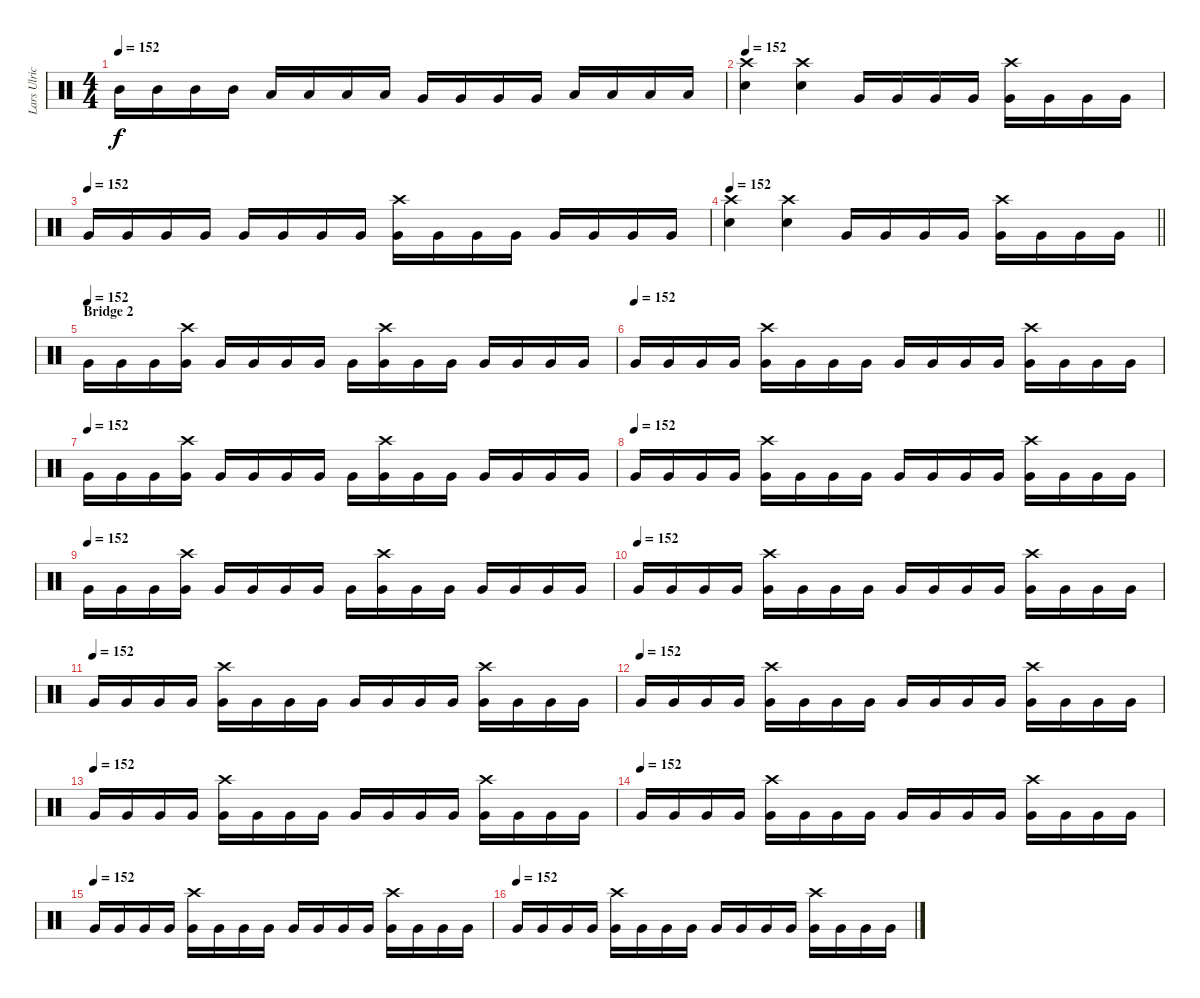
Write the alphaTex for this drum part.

\track ("Lars Ulrich" "Lars Ulric") {instrument percussion}
\staff {score}
\articulation defaults
\ts (4 4)
\tempo 152
\clef neutral
\ks c "Mid Tom (hit)".16{dy f} "Mid Tom (hit)".16 "Mid Tom (hit)".16 "Mid Tom (hit)".16 "Low Tom (hit)".16 "Low Tom (hit)".16 "Low Tom (hit)".16 "Low Tom (hit)".16 "Very Low Tom (hit)".16 "Very Low Tom (hit)".16 "Very Low Tom (hit)".16 "Very Low Tom (hit)".16 "Low Floor Tom (hit)".16 "Low Floor Tom (hit)".16 "Low Floor Tom (hit)".16 "Low Floor Tom (hit)".16
|
\tempo 152
("Crash high (hit)" "Snare (hit) 2").4{volume 10} ("Crash high (hit)" "Snare (hit) 2").4 "Very Low Tom (hit)".16 "Very Low Tom (hit)".16 "Very Low Tom (hit)".16 "Very Low Tom (hit)".16 ("Crash high (hit)" "Very Low Tom (hit)").16 "Very Low Tom (hit)".16 "Very Low Tom (hit)".16 "Very Low Tom (hit)".16 |
\tempo (152)
"Very Low Tom (hit)".16 "Very Low Tom (hit)".16 "Very Low Tom (hit)".16 "Very Low Tom (hit)".16 "Very Low Tom (hit)".16 "Very Low Tom (hit)".16 "Very Low Tom (hit)".16 "Very Low Tom (hit)".16 ("Crash high (hit)" "Very Low Tom (hit)").16 "Very Low Tom (hit)".16 "Very Low Tom (hit)".16 "Very Low Tom (hit)".16 "Very Low Tom (hit)".16 "Very Low Tom (hit)".16 "Very Low Tom (hit)".16 "Very Low Tom (hit)".16 |
\tempo 152
\barLineRight lightlight
("Crash high (hit)" "Snare (hit) 2").4 ("Crash high (hit)" "Snare (hit) 2").4 "Very Low Tom (hit)".16 "Very Low Tom (hit)".16 "Very Low Tom (hit)".16 "Very Low Tom (hit)".16 ("Crash high (hit)" "Very Low Tom (hit)").16 "Very Low Tom (hit)".16 "Very Low Tom (hit)".16 "Very Low Tom (hit)".16 |
\section ("" "Bridge 2")
\tempo (152)
"Very Low Tom (hit)".16 "Very Low Tom (hit)".16 "Very Low Tom (hit)".16 ("Crash high (hit)" "Very Low Tom (hit)").16 "Very Low Tom (hit)".16 "Very Low Tom (hit)".16 "Very Low Tom (hit)".16 "Very Low Tom (hit)".16 "Very Low Tom (hit)".16 ("Crash high (hit)" "Very Low Tom (hit)").16 "Very Low Tom (hit)".16 "Very Low Tom (hit)".16 "Very Low Tom (hit)".16 "Very Low Tom (hit)".16 "Very Low Tom (hit)".16 "Very Low Tom (hit)".16 |
\tempo (152)
"Very Low Tom (hit)".16 "Very Low Tom (hit)".16 "Very Low Tom (hit)".16 "Very Low Tom (hit)".16 ("Crash high (hit)" "Very Low Tom (hit)").16 "Very Low Tom (hit)".16 "Very Low Tom (hit)".16 "Very Low Tom (hit)".16 "Very Low Tom (hit)".16 "Very Low Tom (hit)".16 "Very Low Tom (hit)".16 "Very Low Tom (hit)".16 ("Crash high (hit)" "Very Low Tom (hit)").16 "Very Low Tom (hit)".16 "Very Low Tom (hit)".16 "Very Low Tom (hit)".16 |
\tempo (152)
"Very Low Tom (hit)".16 "Very Low Tom (hit)".16 "Very Low Tom (hit)".16 ("Crash high (hit)" "Very Low Tom (hit)").16 "Very Low Tom (hit)".16 "Very Low Tom (hit)".16 "Very Low Tom (hit)".16 "Very Low Tom (hit)".16 "Very Low Tom (hit)".16 ("Crash high (hit)" "Very Low Tom (hit)").16 "Very Low Tom (hit)".16 "Very Low Tom (hit)".16 "Very Low Tom (hit)".16 "Very Low Tom (hit)".16 "Very Low Tom (hit)".16 "Very Low Tom (hit)".16 |
\tempo (152)
"Very Low Tom (hit)".16 "Very Low Tom (hit)".16 "Very Low Tom (hit)".16 "Very Low Tom (hit)".16 ("Crash high (hit)" "Very Low Tom (hit)").16 "Very Low Tom (hit)".16 "Very Low Tom (hit)".16 "Very Low Tom (hit)".16 "Very Low Tom (hit)".16 "Very Low Tom (hit)".16 "Very Low Tom (hit)".16 "Very Low Tom (hit)".16 ("Crash high (hit)" "Very Low Tom (hit)").16 "Very Low Tom (hit)".16 "Very Low Tom (hit)".16 "Very Low Tom (hit)".16 |
\tempo (152)
"Very Low Tom (hit)".16 "Very Low Tom (hit)".16 "Very Low Tom (hit)".16 ("Crash high (hit)" "Very Low Tom (hit)").16 "Very Low Tom (hit)".16 "Very Low Tom (hit)".16 "Very Low Tom (hit)".16 "Very Low Tom (hit)".16 "Very Low Tom (hit)".16 ("Crash high (hit)" "Very Low Tom (hit)").16 "Very Low Tom (hit)".16 "Very Low Tom (hit)".16 "Very Low Tom (hit)".16 "Very Low Tom (hit)".16 "Very Low Tom (hit)".16 "Very Low Tom (hit)".16 |
\tempo (152)
"Very Low Tom (hit)".16 "Very Low Tom (hit)".16 "Very Low Tom (hit)".16 "Very Low Tom (hit)".16 ("Crash high (hit)" "Very Low Tom (hit)").16 "Very Low Tom (hit)".16 "Very Low Tom (hit)".16 "Very Low Tom (hit)".16 "Very Low Tom (hit)".16 "Very Low Tom (hit)".16 "Very Low Tom (hit)".16 "Very Low Tom (hit)".16 ("Crash high (hit)" "Very Low Tom (hit)").16 "Very Low Tom (hit)".16 "Very Low Tom (hit)".16 "Very Low Tom (hit)".16 |
\tempo (152)
"Very Low Tom (hit)".16 "Very Low Tom (hit)".16 "Very Low Tom (hit)".16 "Very Low Tom (hit)".16 ("Crash high (hit)" "Very Low Tom (hit)").16 "Very Low Tom (hit)".16 "Very Low Tom (hit)".16 "Very Low Tom (hit)".16 "Very Low Tom (hit)".16 "Very Low Tom (hit)".16 "Very Low Tom (hit)".16 "Very Low Tom (hit)".16 ("Crash high (hit)" "Very Low Tom (hit)").16 "Very Low Tom (hit)".16 "Very Low Tom (hit)".16 "Very Low Tom (hit)".16 |
\tempo (152)
"Very Low Tom (hit)".16 "Very Low Tom (hit)".16 "Very Low Tom (hit)".16 "Very Low Tom (hit)".16 ("Crash high (hit)" "Very Low Tom (hit)").16 "Very Low Tom (hit)".16 "Very Low Tom (hit)".16 "Very Low Tom (hit)".16 "Very Low Tom (hit)".16 "Very Low Tom (hit)".16 "Very Low Tom (hit)".16 "Very Low Tom (hit)".16 ("Crash high (hit)" "Very Low Tom (hit)").16 "Very Low Tom (hit)".16 "Very Low Tom (hit)".16 "Very Low Tom (hit)".16 |
\tempo (152)
"Very Low Tom (hit)".16 "Very Low Tom (hit)".16 "Very Low Tom (hit)".16 "Very Low Tom (hit)".16 ("Crash high (hit)" "Very Low Tom (hit)").16 "Very Low Tom (hit)".16 "Very Low Tom (hit)".16 "Very Low Tom (hit)".16 "Very Low Tom (hit)".16 "Very Low Tom (hit)".16 "Very Low Tom (hit)".16 "Very Low Tom (hit)".16 ("Crash high (hit)" "Very Low Tom (hit)").16 "Very Low Tom (hit)".16 "Very Low Tom (hit)".16 "Very Low Tom (hit)".16 |
\tempo (152)
"Very Low Tom (hit)".16 "Very Low Tom (hit)".16 "Very Low Tom (hit)".16 "Very Low Tom (hit)".16 ("Crash high (hit)" "Very Low Tom (hit)").16 "Very Low Tom (hit)".16 "Very Low Tom (hit)".16 "Very Low Tom (hit)".16 "Very Low Tom (hit)".16 "Very Low Tom (hit)".16 "Very Low Tom (hit)".16 "Very Low Tom (hit)".16 ("Crash high (hit)" "Very Low Tom (hit)").16 "Very Low Tom (hit)".16 "Very Low Tom (hit)".16 "Very Low Tom (hit)".16 |
\tempo (152)
"Very Low Tom (hit)".16 "Very Low Tom (hit)".16 "Very Low Tom (hit)".16 "Very Low Tom (hit)".16 ("Crash high (hit)" "Very Low Tom (hit)").16 "Very Low Tom (hit)".16 "Very Low Tom (hit)".16 "Very Low Tom (hit)".16 "Very Low Tom (hit)".16 "Very Low Tom (hit)".16 "Very Low Tom (hit)".16 "Very Low Tom (hit)".16 ("Crash high (hit)" "Very Low Tom (hit)").16 "Very Low Tom (hit)".16 "Very Low Tom (hit)".16 "Very Low Tom (hit)".16 |
\tempo (152)
"Very Low Tom (hit)".16 "Very Low Tom (hit)".16 "Very Low Tom (hit)".16 "Very Low Tom (hit)".16 ("Crash high (hit)" "Very Low Tom (hit)").16 "Very Low Tom (hit)".16 "Very Low Tom (hit)".16 "Very Low Tom (hit)".16 "Very Low Tom (hit)".16 "Very Low Tom (hit)".16 "Very Low Tom (hit)".16 "Very Low Tom (hit)".16 ("Crash high (hit)" "Very Low Tom (hit)").16 "Very Low Tom (hit)".16 "Very Low Tom (hit)".16 "Very Low Tom (hit)".16
